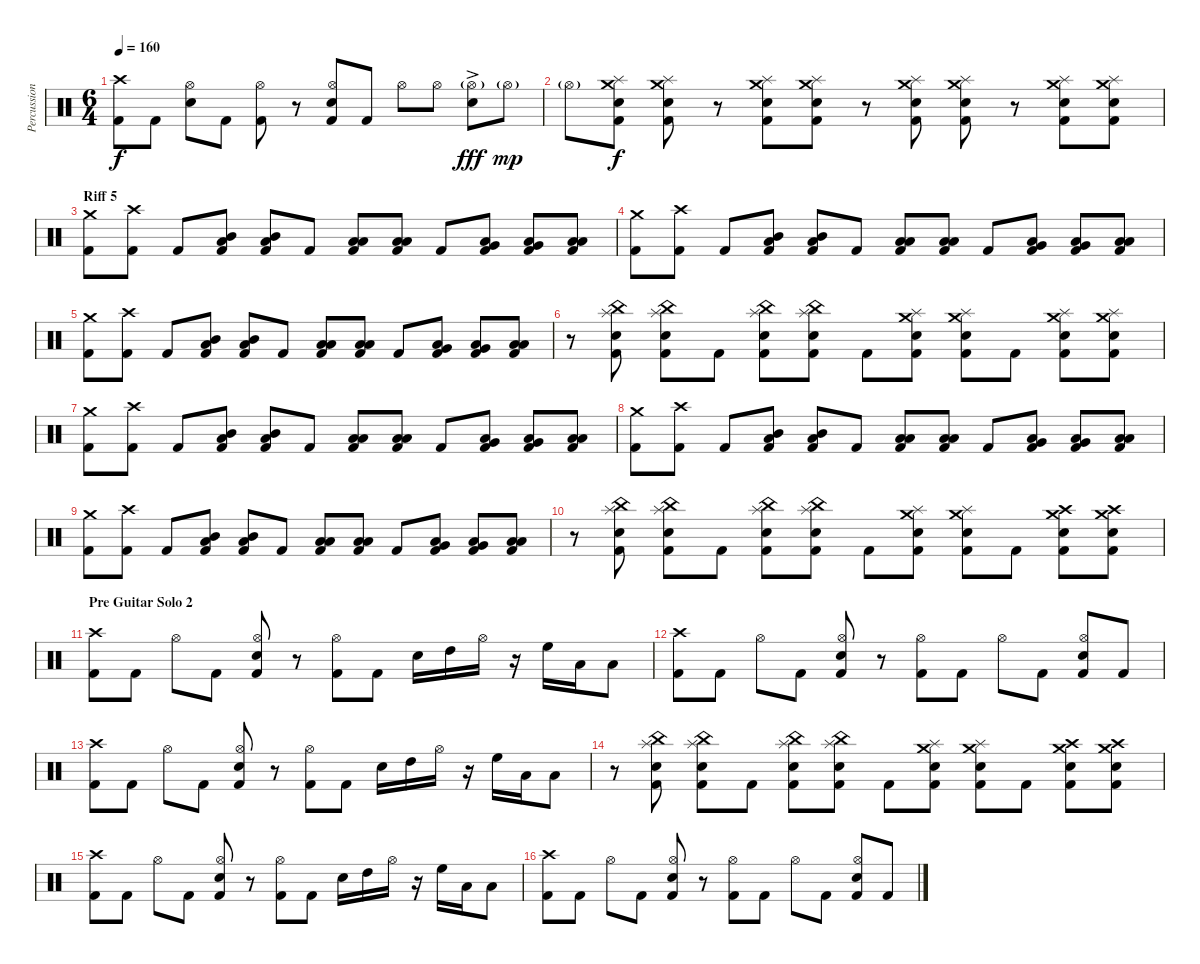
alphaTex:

\track ("Percussion" "Percussion") {instrument percussion}
\staff {score}
\articulation defaults
\ts (6 4)
\tempo 160
\clef neutral
\ks c
("Crash high (hit)" "Kick (hit) 2").8{dy f} "Kick (hit) 2".8 ("Hi-Hat (open)" "Electric Snare (hit)").8 "Kick (hit) 2".8 ("Hi-Hat (open)" "Kick (hit) 2").8 r.8 ("Hi-Hat (open)" "Electric Snare (hit)" "Kick (hit) 2").8 "Kick (hit) 2".8 "Hi-Hat (open)".8 "Hi-Hat (open)".8 ("Hi-Hat (open)"{g} "Electric Snare (hit)"{ac}).8{dy fff} "Hi-Hat (open)"{g}.8{dy mp} |
"Hi-Hat (open)"{g}.8 ("Crash medium (hit)" "Splash (hit)" "Electric Snare (hit)" "Kick (hit) 2").8{dy f} ("Crash medium (hit)" "Splash (hit)" "Electric Snare (hit)" "Kick (hit) 2").8 r.8 ("Crash medium (hit)" "Splash (hit)" "Electric Snare (hit)" "Kick (hit) 2").8 ("Crash medium (hit)" "Splash (hit)" "Electric Snare (hit)" "Kick (hit) 2").8 r.8 ("Crash medium (hit)" "Splash (hit)" "Electric Snare (hit)" "Kick (hit) 2").8 ("Crash medium (hit)" "Splash (hit)" "Electric Snare (hit)" "Kick (hit) 2").8 r.8 ("Crash medium (hit)" "Splash (hit)" "Electric Snare (hit)" "Kick (hit) 2").8 ("Crash medium (hit)" "Splash (hit)" "Electric Snare (hit)" "Kick (hit) 2").8 |
\section ("" "Riff 5")
("Crash medium (hit)" "Kick (hit) 2").8 ("Crash high (hit)" "Kick (hit) 2").8 "Kick (hit) 2".8 ("Mid Tom (hit)" "Low Floor Tom (hit)" "Kick (hit) 2").8 ("Mid Tom (hit)" "Low Floor Tom (hit)" "Kick (hit) 2").8 "Kick (hit) 2".8 ("Low Tom (hit)" "Low Floor Tom (hit)" "Kick (hit) 2").8 ("Low Tom (hit)" "Low Floor Tom (hit)" "Kick (hit) 2").8 "Kick (hit) 2".8 ("Very Low Tom (hit)" "Low Floor Tom (hit)" "Kick (hit) 2").8 ("Very Low Tom (hit)" "Low Floor Tom (hit)" "Kick (hit) 2").8 ("Low Floor Tom (hit)" "Low Floor Tom (hit)" "Kick (hit) 2").8 |
("Crash medium (hit)" "Kick (hit) 2").8 ("Crash high (hit)" "Kick (hit) 2").8 "Kick (hit) 2".8 ("Mid Tom (hit)" "Low Floor Tom (hit)" "Kick (hit) 2").8 ("Mid Tom (hit)" "Low Floor Tom (hit)" "Kick (hit) 2").8 "Kick (hit) 2".8 ("Low Tom (hit)" "Low Floor Tom (hit)" "Kick (hit) 2").8 ("Low Tom (hit)" "Low Floor Tom (hit)" "Kick (hit) 2").8 "Kick (hit) 2".8 ("Very Low Tom (hit)" "Low Floor Tom (hit)" "Kick (hit) 2").8 ("Very Low Tom (hit)" "Low Floor Tom (hit)" "Kick (hit) 2").8 ("Low Floor Tom (hit)" "Low Floor Tom (hit)" "Kick (hit) 2").8 |
("Crash medium (hit)" "Kick (hit) 2").8 ("Crash high (hit)" "Kick (hit) 2").8 "Kick (hit) 2".8 ("Mid Tom (hit)" "Low Floor Tom (hit)" "Kick (hit) 2").8 ("Mid Tom (hit)" "Low Floor Tom (hit)" "Kick (hit) 2").8 "Kick (hit) 2".8 ("Low Tom (hit)" "Low Floor Tom (hit)" "Kick (hit) 2").8 ("Low Tom (hit)" "Low Floor Tom (hit)" "Kick (hit) 2").8 "Kick (hit) 2".8 ("Very Low Tom (hit)" "Low Floor Tom (hit)" "Kick (hit) 2").8 ("Very Low Tom (hit)" "Low Floor Tom (hit)" "Kick (hit) 2").8 ("Low Floor Tom (hit)" "Low Floor Tom (hit)" "Kick (hit) 2").8 |
r.8 ("China (hit)" "Splash (hit)" "Electric Snare (hit)" "Kick (hit) 2").8 ("China (hit)" "Splash (hit)" "Electric Snare (hit)" "Kick (hit) 2").8 "Kick (hit) 2".8 ("China (hit)" "Splash (hit)" "Electric Snare (hit)" "Kick (hit) 2").8 ("China (hit)" "Splash (hit)" "Electric Snare (hit)" "Kick (hit) 2").8 "Kick (hit) 2".8 ("Crash medium (hit)" "Splash (hit)" "Electric Snare (hit)" "Kick (hit) 2").8 ("Crash medium (hit)" "Splash (hit)" "Electric Snare (hit)" "Kick (hit) 2").8 "Kick (hit) 2".8 ("Crash medium (hit)" "Splash (hit)" "Electric Snare (hit)" "Kick (hit) 2").8 ("Crash medium (hit)" "Splash (hit)" "Electric Snare (hit)" "Kick (hit) 2").8 |
("Crash medium (hit)" "Kick (hit) 2").8 ("Crash high (hit)" "Kick (hit) 2").8 "Kick (hit) 2".8 ("Mid Tom (hit)" "Low Floor Tom (hit)" "Kick (hit) 2").8 ("Mid Tom (hit)" "Low Floor Tom (hit)" "Kick (hit) 2").8 "Kick (hit) 2".8 ("Low Tom (hit)" "Low Floor Tom (hit)" "Kick (hit) 2").8 ("Low Tom (hit)" "Low Floor Tom (hit)" "Kick (hit) 2").8 "Kick (hit) 2".8 ("Very Low Tom (hit)" "Low Floor Tom (hit)" "Kick (hit) 2").8 ("Very Low Tom (hit)" "Low Floor Tom (hit)" "Kick (hit) 2").8 ("Low Floor Tom (hit)" "Low Floor Tom (hit)" "Kick (hit) 2").8 |
("Crash medium (hit)" "Kick (hit) 2").8 ("Crash high (hit)" "Kick (hit) 2").8 "Kick (hit) 2".8 ("Mid Tom (hit)" "Low Floor Tom (hit)" "Kick (hit) 2").8 ("Mid Tom (hit)" "Low Floor Tom (hit)" "Kick (hit) 2").8 "Kick (hit) 2".8 ("Low Tom (hit)" "Low Floor Tom (hit)" "Kick (hit) 2").8 ("Low Tom (hit)" "Low Floor Tom (hit)" "Kick (hit) 2").8 "Kick (hit) 2".8 ("Very Low Tom (hit)" "Low Floor Tom (hit)" "Kick (hit) 2").8 ("Very Low Tom (hit)" "Low Floor Tom (hit)" "Kick (hit) 2").8 ("Low Floor Tom (hit)" "Low Floor Tom (hit)" "Kick (hit) 2").8 |
("Crash medium (hit)" "Kick (hit) 2").8 ("Crash high (hit)" "Kick (hit) 2").8 "Kick (hit) 2".8 ("Mid Tom (hit)" "Low Floor Tom (hit)" "Kick (hit) 2").8 ("Mid Tom (hit)" "Low Floor Tom (hit)" "Kick (hit) 2").8 "Kick (hit) 2".8 ("Low Tom (hit)" "Low Floor Tom (hit)" "Kick (hit) 2").8 ("Low Tom (hit)" "Low Floor Tom (hit)" "Kick (hit) 2").8 "Kick (hit) 2".8 ("Very Low Tom (hit)" "Low Floor Tom (hit)" "Kick (hit) 2").8 ("Very Low Tom (hit)" "Low Floor Tom (hit)" "Kick (hit) 2").8 ("Low Floor Tom (hit)" "Low Floor Tom (hit)" "Kick (hit) 2").8 |
r.8 ("China (hit)" "Splash (hit)" "Electric Snare (hit)" "Kick (hit) 2").8 ("China (hit)" "Splash (hit)" "Electric Snare (hit)" "Kick (hit) 2").8 "Kick (hit) 2".8 ("China (hit)" "Splash (hit)" "Electric Snare (hit)" "Kick (hit) 2").8 ("China (hit)" "Splash (hit)" "Electric Snare (hit)" "Kick (hit) 2").8 "Kick (hit) 2".8 ("Crash medium (hit)" "Splash (hit)" "Electric Snare (hit)" "Kick (hit) 2").8 ("Crash medium (hit)" "Splash (hit)" "Electric Snare (hit)" "Kick (hit) 2").8 "Kick (hit) 2".8 ("Crash medium (hit)" "Crash high (hit)" "Electric Snare (hit)" "Kick (hit) 2").8 ("Crash medium (hit)" "Crash high (hit)" "Electric Snare (hit)" "Kick (hit) 2").8 |
\section ("" "Pre Guitar Solo 2")
("Crash high (hit)" "Kick (hit) 2").8 "Kick (hit) 2".8 "Hi-Hat (open)".8 "Kick (hit) 2".8 ("Hi-Hat (open)" "Electric Snare (hit)" "Kick (hit) 2").8 r.8 ("Hi-Hat (open)" "Kick (hit) 2").8 "Kick (hit) 2".8 "Electric Snare (hit)".16 "High Tom (hit)".16 "Hi-Hat (open)".16 r.16 "High Floor Tom (hit)".16 "Low Tom (hit)".16 "Low Floor Tom (hit)".8 |
("Crash high (hit)" "Kick (hit) 2").8 "Kick (hit) 2".8 "Hi-Hat (open)".8 "Kick (hit) 2".8 ("Hi-Hat (open)" "Electric Snare (hit)" "Kick (hit) 2").8 r.8 ("Hi-Hat (open)" "Kick (hit) 2").8 "Kick (hit) 2".8 "Hi-Hat (open)".8 "Kick (hit) 2".8 ("Hi-Hat (open)" "Electric Snare (hit)" "Kick (hit) 2").8 "Kick (hit) 2".8 |
("Crash high (hit)" "Kick (hit) 2").8 "Kick (hit) 2".8 "Hi-Hat (open)".8 "Kick (hit) 2".8 ("Hi-Hat (open)" "Electric Snare (hit)" "Kick (hit) 2").8 r.8 ("Hi-Hat (open)" "Kick (hit) 2").8 "Kick (hit) 2".8 "Electric Snare (hit)".16 "High Tom (hit)".16 "Hi-Hat (open)".16 r.16 "High Floor Tom (hit)".16 "Low Tom (hit)".16 "Low Floor Tom (hit)".8 |
r.8 ("China (hit)" "Splash (hit)" "Electric Snare (hit)" "Kick (hit) 2").8 ("China (hit)" "Splash (hit)" "Electric Snare (hit)" "Kick (hit) 2").8 "Kick (hit) 2".8 ("China (hit)" "Splash (hit)" "Electric Snare (hit)" "Kick (hit) 2").8 ("China (hit)" "Splash (hit)" "Electric Snare (hit)" "Kick (hit) 2").8 "Kick (hit) 2".8 ("Crash medium (hit)" "Splash (hit)" "Electric Snare (hit)" "Kick (hit) 2").8 ("Crash medium (hit)" "Splash (hit)" "Electric Snare (hit)" "Kick (hit) 2").8 "Kick (hit) 2".8 ("Crash medium (hit)" "Crash high (hit)" "Electric Snare (hit)" "Kick (hit) 2").8 ("Crash medium (hit)" "Crash high (hit)" "Electric Snare (hit)" "Kick (hit) 2").8 |
("Crash high (hit)" "Kick (hit) 2").8 "Kick (hit) 2".8 "Hi-Hat (open)".8 "Kick (hit) 2".8 ("Hi-Hat (open)" "Electric Snare (hit)" "Kick (hit) 2").8 r.8 ("Hi-Hat (open)" "Kick (hit) 2").8 "Kick (hit) 2".8 "Electric Snare (hit)".16 "High Tom (hit)".16 "Hi-Hat (open)".16 r.16 "High Floor Tom (hit)".16 "Low Tom (hit)".16 "Low Floor Tom (hit)".8 |
("Crash high (hit)" "Kick (hit) 2").8 "Kick (hit) 2".8 "Hi-Hat (open)".8 "Kick (hit) 2".8 ("Hi-Hat (open)" "Electric Snare (hit)" "Kick (hit) 2").8 r.8 ("Hi-Hat (open)" "Kick (hit) 2").8 "Kick (hit) 2".8 "Hi-Hat (open)".8 "Kick (hit) 2".8 ("Hi-Hat (open)" "Electric Snare (hit)" "Kick (hit) 2").8 "Kick (hit) 2".8
